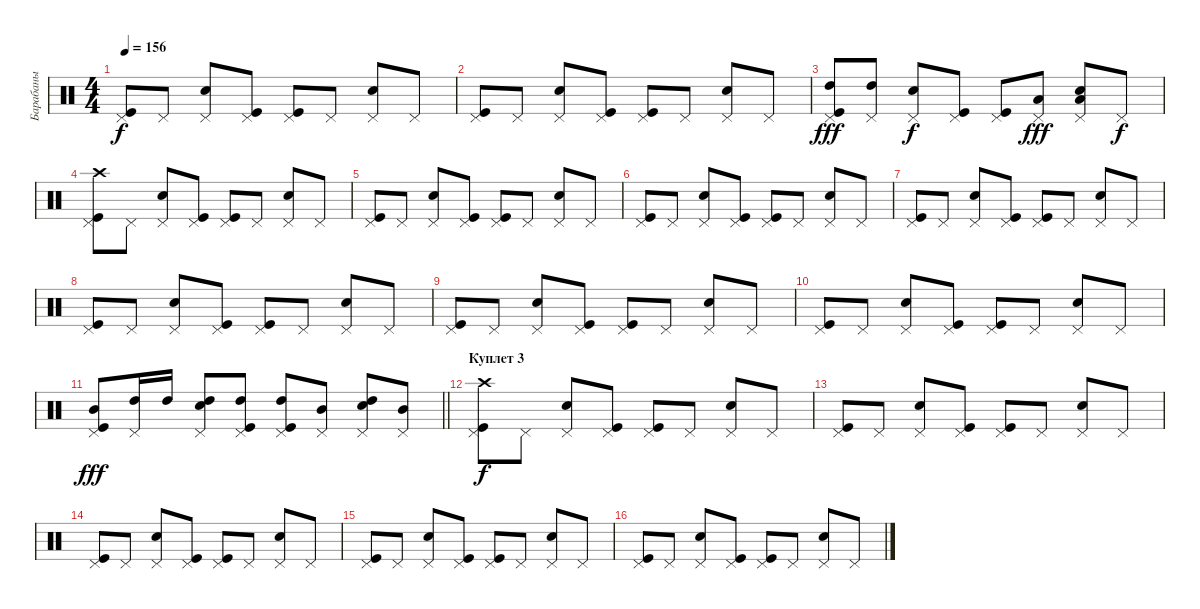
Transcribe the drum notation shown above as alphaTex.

\track ("Барабаны" "Барабаны") {instrument percussion}
\staff {score}
\articulation defaults
\ts (4 4)
\tempo 156
\clef neutral
\ks c
("Kick (hit)" "Pedal Hi-Hat (hit)").8{dy f} "Pedal Hi-Hat (hit)".8 ("Snare (hit) 2" "Pedal Hi-Hat (hit)").8 ("Kick (hit)" "Pedal Hi-Hat (hit)").8 ("Kick (hit)" "Pedal Hi-Hat (hit)").8 "Pedal Hi-Hat (hit)".8 ("Snare (hit) 2" "Pedal Hi-Hat (hit)").8 "Pedal Hi-Hat (hit)".8 |
("Kick (hit)" "Pedal Hi-Hat (hit)").8 "Pedal Hi-Hat (hit)".8 ("Snare (hit) 2" "Pedal Hi-Hat (hit)").8 ("Kick (hit)" "Pedal Hi-Hat (hit)").8 ("Kick (hit)" "Pedal Hi-Hat (hit)").8 "Pedal Hi-Hat (hit)".8 ("Snare (hit) 2" "Pedal Hi-Hat (hit)").8 "Pedal Hi-Hat (hit)".8 |
("Kick (hit)" "Pedal Hi-Hat (hit)" "High Tom (hit)").8{dy fff} ("Pedal Hi-Hat (hit)" "High Tom (hit)").8 ("Snare (hit) 2" "Pedal Hi-Hat (hit)").8{dy f} ("Kick (hit)" "Pedal Hi-Hat (hit)").8 ("Kick (hit)" "Pedal Hi-Hat (hit)").8 ("Pedal Hi-Hat (hit)" "Low Floor Tom (hit)").8{dy fff} ("Snare (hit) 2" "Pedal Hi-Hat (hit)" "Low Floor Tom (hit)").8 "Pedal Hi-Hat (hit)".8{dy f} |
("Kick (hit)" "Pedal Hi-Hat (hit)" "Crash high (hit)").8 "Pedal Hi-Hat (hit)".8 ("Snare (hit) 2" "Pedal Hi-Hat (hit)").8 ("Kick (hit)" "Pedal Hi-Hat (hit)").8 ("Kick (hit)" "Pedal Hi-Hat (hit)").8 "Pedal Hi-Hat (hit)".8 ("Snare (hit) 2" "Pedal Hi-Hat (hit)").8 "Pedal Hi-Hat (hit)".8 |
("Kick (hit)" "Pedal Hi-Hat (hit)").8 "Pedal Hi-Hat (hit)".8 ("Snare (hit) 2" "Pedal Hi-Hat (hit)").8 ("Kick (hit)" "Pedal Hi-Hat (hit)").8 ("Kick (hit)" "Pedal Hi-Hat (hit)").8 "Pedal Hi-Hat (hit)".8 ("Snare (hit) 2" "Pedal Hi-Hat (hit)").8 "Pedal Hi-Hat (hit)".8 |
("Kick (hit)" "Pedal Hi-Hat (hit)").8 "Pedal Hi-Hat (hit)".8 ("Snare (hit) 2" "Pedal Hi-Hat (hit)").8 ("Kick (hit)" "Pedal Hi-Hat (hit)").8 ("Kick (hit)" "Pedal Hi-Hat (hit)").8 "Pedal Hi-Hat (hit)".8 ("Snare (hit) 2" "Pedal Hi-Hat (hit)").8 "Pedal Hi-Hat (hit)".8 |
("Kick (hit)" "Pedal Hi-Hat (hit)").8 "Pedal Hi-Hat (hit)".8 ("Snare (hit) 2" "Pedal Hi-Hat (hit)").8 ("Kick (hit)" "Pedal Hi-Hat (hit)").8 ("Kick (hit)" "Pedal Hi-Hat (hit)").8 "Pedal Hi-Hat (hit)".8 ("Snare (hit) 2" "Pedal Hi-Hat (hit)").8 "Pedal Hi-Hat (hit)".8 |
("Kick (hit)" "Pedal Hi-Hat (hit)").8 "Pedal Hi-Hat (hit)".8 ("Snare (hit) 2" "Pedal Hi-Hat (hit)").8 ("Kick (hit)" "Pedal Hi-Hat (hit)").8 ("Kick (hit)" "Pedal Hi-Hat (hit)").8 "Pedal Hi-Hat (hit)".8 ("Snare (hit) 2" "Pedal Hi-Hat (hit)").8 "Pedal Hi-Hat (hit)".8 |
("Kick (hit)" "Pedal Hi-Hat (hit)").8 "Pedal Hi-Hat (hit)".8 ("Snare (hit) 2" "Pedal Hi-Hat (hit)").8 ("Kick (hit)" "Pedal Hi-Hat (hit)").8 ("Kick (hit)" "Pedal Hi-Hat (hit)").8 "Pedal Hi-Hat (hit)".8 ("Snare (hit) 2" "Pedal Hi-Hat (hit)").8 "Pedal Hi-Hat (hit)".8 |
("Kick (hit)" "Pedal Hi-Hat (hit)").8 "Pedal Hi-Hat (hit)".8 ("Snare (hit) 2" "Pedal Hi-Hat (hit)").8 ("Kick (hit)" "Pedal Hi-Hat (hit)").8 ("Kick (hit)" "Pedal Hi-Hat (hit)").8 "Pedal Hi-Hat (hit)".8 ("Snare (hit) 2" "Pedal Hi-Hat (hit)").8 "Pedal Hi-Hat (hit)".8 |
\barLineRight lightlight
("Kick (hit)" "Pedal Hi-Hat (hit)" "Mid Tom (hit)").8{dy fff} ("Pedal Hi-Hat (hit)" "High Tom (hit)").16 "High Tom (hit)".16 ("Snare (hit) 2" "Pedal Hi-Hat (hit)" "High Tom (hit)").8 ("Kick (hit)" "Pedal Hi-Hat (hit)" "High Tom (hit)").8 ("Kick (hit)" "Pedal Hi-Hat (hit)" "High Tom (hit)").8 ("Pedal Hi-Hat (hit)" "Mid Tom (hit)").8 ("Snare (hit) 2" "Pedal Hi-Hat (hit)" "High Tom (hit)").8 ("Pedal Hi-Hat (hit)" "Mid Tom (hit)").8 |
\section ("" "Куплет 3")
("Kick (hit)" "Pedal Hi-Hat (hit)" "Crash high (hit)").8{dy f} "Pedal Hi-Hat (hit)".8 ("Snare (hit) 2" "Pedal Hi-Hat (hit)").8 ("Kick (hit)" "Pedal Hi-Hat (hit)").8 ("Kick (hit)" "Pedal Hi-Hat (hit)").8 "Pedal Hi-Hat (hit)".8 ("Snare (hit) 2" "Pedal Hi-Hat (hit)").8 "Pedal Hi-Hat (hit)".8 |
("Kick (hit)" "Pedal Hi-Hat (hit)").8 "Pedal Hi-Hat (hit)".8 ("Snare (hit) 2" "Pedal Hi-Hat (hit)").8 ("Kick (hit)" "Pedal Hi-Hat (hit)").8 ("Kick (hit)" "Pedal Hi-Hat (hit)").8 "Pedal Hi-Hat (hit)".8 ("Snare (hit) 2" "Pedal Hi-Hat (hit)").8 "Pedal Hi-Hat (hit)".8 |
("Kick (hit)" "Pedal Hi-Hat (hit)").8 "Pedal Hi-Hat (hit)".8 ("Snare (hit) 2" "Pedal Hi-Hat (hit)").8 ("Kick (hit)" "Pedal Hi-Hat (hit)").8 ("Kick (hit)" "Pedal Hi-Hat (hit)").8 "Pedal Hi-Hat (hit)".8 ("Snare (hit) 2" "Pedal Hi-Hat (hit)").8 "Pedal Hi-Hat (hit)".8 |
("Kick (hit)" "Pedal Hi-Hat (hit)").8 "Pedal Hi-Hat (hit)".8 ("Snare (hit) 2" "Pedal Hi-Hat (hit)").8 ("Kick (hit)" "Pedal Hi-Hat (hit)").8 ("Kick (hit)" "Pedal Hi-Hat (hit)").8 "Pedal Hi-Hat (hit)".8 ("Snare (hit) 2" "Pedal Hi-Hat (hit)").8 "Pedal Hi-Hat (hit)".8 |
("Kick (hit)" "Pedal Hi-Hat (hit)").8 "Pedal Hi-Hat (hit)".8 ("Snare (hit) 2" "Pedal Hi-Hat (hit)").8 ("Kick (hit)" "Pedal Hi-Hat (hit)").8 ("Kick (hit)" "Pedal Hi-Hat (hit)").8 "Pedal Hi-Hat (hit)".8 ("Snare (hit) 2" "Pedal Hi-Hat (hit)").8 "Pedal Hi-Hat (hit)".8
